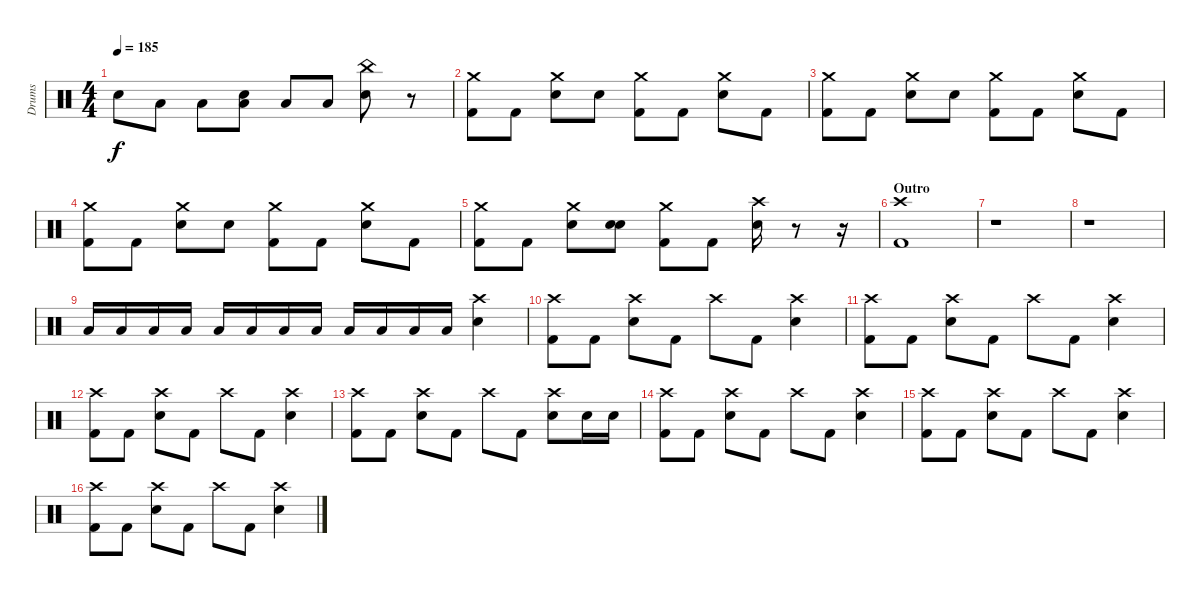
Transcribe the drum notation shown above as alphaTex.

\track ("Drums" "Drums") {instrument percussion}
\staff {score}
\articulation defaults
\ts (4 4)
\tempo 185
\clef neutral
\ks c "Electric Snare (hit)".8{dy f} "Low Tom (hit)".8 "Low Tom (hit)".8
("Low Tom (hit)" "Electric Snare (hit)").8 "Low Tom (hit)".8 "Low Tom (hit)".8 ("China (hit)" "Electric Snare (hit)").8 r.8 |
("Crash medium (hit)" "Kick (hit) 2").8 "Kick (hit) 2".8 ("Crash medium (hit)" "Electric Snare (hit)").8 "Electric Snare (hit)".8 ("Crash medium (hit)" "Kick (hit) 2").8 "Kick (hit) 2".8 ("Crash medium (hit)" "Electric Snare (hit)").8 "Kick (hit) 2".8 |
("Crash medium (hit)" "Kick (hit) 2").8 "Kick (hit) 2".8 ("Crash medium (hit)" "Electric Snare (hit)").8 "Electric Snare (hit)".8 ("Crash medium (hit)" "Kick (hit) 2").8 "Kick (hit) 2".8 ("Crash medium (hit)" "Electric Snare (hit)").8 "Kick (hit) 2".8 |
("Crash medium (hit)" "Kick (hit) 2").8 "Kick (hit) 2".8 ("Crash medium (hit)" "Electric Snare (hit)").8 "Electric Snare (hit)".8 ("Crash medium (hit)" "Kick (hit) 2").8 "Kick (hit) 2".8 ("Crash medium (hit)" "Electric Snare (hit)").8 "Kick (hit) 2".8 |
("Crash medium (hit)" "Kick (hit) 2").8 "Kick (hit) 2".8 ("Crash medium (hit)" "Electric Snare (hit)").8 ("Electric Snare (hit)" "Snare (hit)").8 ("Crash medium (hit)" "Kick (hit) 2").8 "Kick (hit) 2".8 ("Crash high (hit)" "Electric Snare (hit)").16 r.8 r.16 |
\section ("" "Outro")
("Crash high (hit)" "Kick (hit) 2").1 |
r.1 |
r.1 |
"Low Floor Tom (hit)".16 "Low Floor Tom (hit)".16 "Low Floor Tom (hit)".16 "Low Floor Tom (hit)".16 "Low Floor Tom (hit)".16 "Low Floor Tom (hit)".16 "Low Floor Tom (hit)".16 "Low Floor Tom (hit)".16 "Low Floor Tom (hit)".16 "Low Floor Tom (hit)".16 "Low Floor Tom (hit)".16 "Low Floor Tom (hit)".16 ("Crash high (hit)" "Electric Snare (hit)").4 |
("Crash high (hit)" "Kick (hit) 2").8 "Kick (hit) 2".8 ("Crash high (hit)" "Electric Snare (hit)").8 "Kick (hit) 2".8 "Crash high (hit)".8 "Kick (hit) 2".8 ("Crash high (hit)" "Electric Snare (hit)").4 |
("Crash high (hit)" "Kick (hit) 2").8 "Kick (hit) 2".8 ("Crash high (hit)" "Electric Snare (hit)").8 "Kick (hit) 2".8 "Crash high (hit)".8 "Kick (hit) 2".8 ("Crash high (hit)" "Electric Snare (hit)").4 |
("Crash high (hit)" "Kick (hit) 2").8 "Kick (hit) 2".8 ("Crash high (hit)" "Electric Snare (hit)").8 "Kick (hit) 2".8 "Crash high (hit)".8 "Kick (hit) 2".8 ("Crash high (hit)" "Electric Snare (hit)").4 |
("Crash high (hit)" "Kick (hit) 2").8 "Kick (hit) 2".8 ("Crash high (hit)" "Electric Snare (hit)").8 "Kick (hit) 2".8 "Crash high (hit)".8 "Kick (hit) 2".8 ("Crash high (hit)" "Electric Snare (hit)").8 "Electric Snare (hit)".16 "Electric Snare (hit)".16 |
("Crash high (hit)" "Kick (hit) 2").8 "Kick (hit) 2".8 ("Crash high (hit)" "Electric Snare (hit)").8 "Kick (hit) 2".8 "Crash high (hit)".8 "Kick (hit) 2".8 ("Crash high (hit)" "Electric Snare (hit)").4 |
("Crash high (hit)" "Kick (hit) 2").8 "Kick (hit) 2".8 ("Crash high (hit)" "Electric Snare (hit)").8 "Kick (hit) 2".8 "Crash high (hit)".8 "Kick (hit) 2".8 ("Crash high (hit)" "Electric Snare (hit)").4 |
("Crash high (hit)" "Kick (hit) 2").8 "Kick (hit) 2".8 ("Crash high (hit)" "Electric Snare (hit)").8 "Kick (hit) 2".8 "Crash high (hit)".8 "Kick (hit) 2".8 ("Crash high (hit)" "Electric Snare (hit)").4
